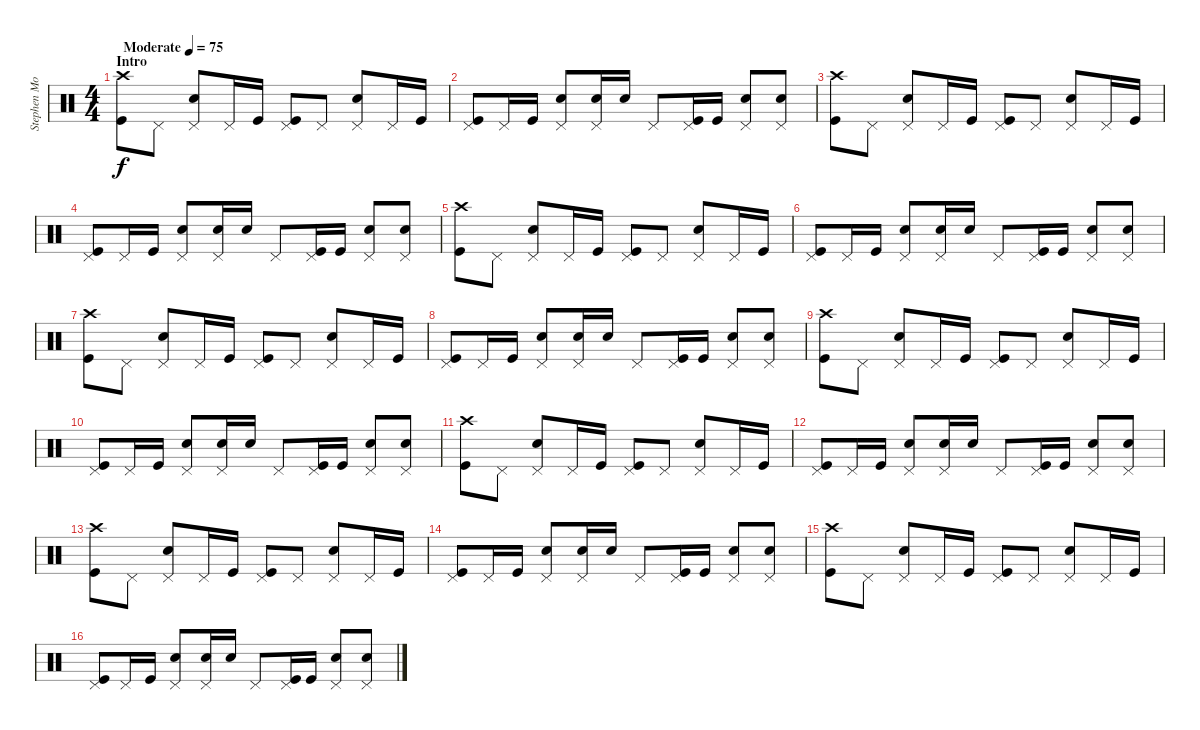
\track ("Stephen Morris (Drums)" "Stephen Mo") {instrument percussion}
\staff {score}
\articulation defaults
\ts (4 4)
\section ("" "Intro")
\tempo (75 "Moderate")
\clef neutral
\ks c
("Crash high (hit)" "Kick (hit)").8{dy f} "Pedal Hi-Hat (hit)".8 ("Pedal Hi-Hat (hit)" "Electric Snare (hit)").8 "Pedal Hi-Hat (hit)".16 "Kick (hit)".16 ("Pedal Hi-Hat (hit)" "Kick (hit)").8 "Pedal Hi-Hat (hit)".8 ("Pedal Hi-Hat (hit)" "Electric Snare (hit)").8 "Pedal Hi-Hat (hit)".16 "Kick (hit)".16 |
("Pedal Hi-Hat (hit)" "Kick (hit)").8 "Pedal Hi-Hat (hit)".16 "Kick (hit)".16 ("Pedal Hi-Hat (hit)" "Electric Snare (hit)").8 ("Pedal Hi-Hat (hit)" "Electric Snare (hit)").16 "Electric Snare (hit)".16 "Pedal Hi-Hat (hit)".8 ("Pedal Hi-Hat (hit)" "Kick (hit)").16 "Kick (hit)".16 ("Pedal Hi-Hat (hit)" "Electric Snare (hit)").8 ("Pedal Hi-Hat (hit)" "Electric Snare (hit)").8 |
("Crash high (hit)" "Kick (hit)").8 "Pedal Hi-Hat (hit)".8 ("Pedal Hi-Hat (hit)" "Electric Snare (hit)").8 "Pedal Hi-Hat (hit)".16 "Kick (hit)".16 ("Pedal Hi-Hat (hit)" "Kick (hit)").8 "Pedal Hi-Hat (hit)".8 ("Pedal Hi-Hat (hit)" "Electric Snare (hit)").8 "Pedal Hi-Hat (hit)".16 "Kick (hit)".16 |
("Pedal Hi-Hat (hit)" "Kick (hit)").8 "Pedal Hi-Hat (hit)".16 "Kick (hit)".16 ("Pedal Hi-Hat (hit)" "Electric Snare (hit)").8 ("Pedal Hi-Hat (hit)" "Electric Snare (hit)").16 "Electric Snare (hit)".16 "Pedal Hi-Hat (hit)".8 ("Pedal Hi-Hat (hit)" "Kick (hit)").16 "Kick (hit)".16 ("Pedal Hi-Hat (hit)" "Electric Snare (hit)").8 ("Pedal Hi-Hat (hit)" "Electric Snare (hit)").8 |
("Crash high (hit)" "Kick (hit)").8 "Pedal Hi-Hat (hit)".8 ("Pedal Hi-Hat (hit)" "Electric Snare (hit)").8 "Pedal Hi-Hat (hit)".16 "Kick (hit)".16 ("Pedal Hi-Hat (hit)" "Kick (hit)").8 "Pedal Hi-Hat (hit)".8 ("Pedal Hi-Hat (hit)" "Electric Snare (hit)").8 "Pedal Hi-Hat (hit)".16 "Kick (hit)".16 |
("Pedal Hi-Hat (hit)" "Kick (hit)").8 "Pedal Hi-Hat (hit)".16 "Kick (hit)".16 ("Pedal Hi-Hat (hit)" "Electric Snare (hit)").8 ("Pedal Hi-Hat (hit)" "Electric Snare (hit)").16 "Electric Snare (hit)".16 "Pedal Hi-Hat (hit)".8 ("Pedal Hi-Hat (hit)" "Kick (hit)").16 "Kick (hit)".16 ("Pedal Hi-Hat (hit)" "Electric Snare (hit)").8 ("Pedal Hi-Hat (hit)" "Electric Snare (hit)").8 |
("Crash high (hit)" "Kick (hit)").8 "Pedal Hi-Hat (hit)".8 ("Pedal Hi-Hat (hit)" "Electric Snare (hit)").8 "Pedal Hi-Hat (hit)".16 "Kick (hit)".16 ("Pedal Hi-Hat (hit)" "Kick (hit)").8 "Pedal Hi-Hat (hit)".8 ("Pedal Hi-Hat (hit)" "Electric Snare (hit)").8 "Pedal Hi-Hat (hit)".16 "Kick (hit)".16 |
("Pedal Hi-Hat (hit)" "Kick (hit)").8 "Pedal Hi-Hat (hit)".16 "Kick (hit)".16 ("Pedal Hi-Hat (hit)" "Electric Snare (hit)").8 ("Pedal Hi-Hat (hit)" "Electric Snare (hit)").16 "Electric Snare (hit)".16 "Pedal Hi-Hat (hit)".8 ("Pedal Hi-Hat (hit)" "Kick (hit)").16 "Kick (hit)".16 ("Pedal Hi-Hat (hit)" "Electric Snare (hit)").8 ("Pedal Hi-Hat (hit)" "Electric Snare (hit)").8 |
("Crash high (hit)" "Kick (hit)").8 "Pedal Hi-Hat (hit)".8 ("Pedal Hi-Hat (hit)" "Electric Snare (hit)").8 "Pedal Hi-Hat (hit)".16 "Kick (hit)".16 ("Pedal Hi-Hat (hit)" "Kick (hit)").8 "Pedal Hi-Hat (hit)".8 ("Pedal Hi-Hat (hit)" "Electric Snare (hit)").8 "Pedal Hi-Hat (hit)".16 "Kick (hit)".16 |
("Pedal Hi-Hat (hit)" "Kick (hit)").8 "Pedal Hi-Hat (hit)".16 "Kick (hit)".16 ("Pedal Hi-Hat (hit)" "Electric Snare (hit)").8 ("Pedal Hi-Hat (hit)" "Electric Snare (hit)").16 "Electric Snare (hit)".16 "Pedal Hi-Hat (hit)".8 ("Pedal Hi-Hat (hit)" "Kick (hit)").16 "Kick (hit)".16 ("Pedal Hi-Hat (hit)" "Electric Snare (hit)").8 ("Pedal Hi-Hat (hit)" "Electric Snare (hit)").8 |
("Crash high (hit)" "Kick (hit)").8 "Pedal Hi-Hat (hit)".8 ("Pedal Hi-Hat (hit)" "Electric Snare (hit)").8 "Pedal Hi-Hat (hit)".16 "Kick (hit)".16 ("Pedal Hi-Hat (hit)" "Kick (hit)").8 "Pedal Hi-Hat (hit)".8 ("Pedal Hi-Hat (hit)" "Electric Snare (hit)").8 "Pedal Hi-Hat (hit)".16 "Kick (hit)".16 |
("Pedal Hi-Hat (hit)" "Kick (hit)").8 "Pedal Hi-Hat (hit)".16 "Kick (hit)".16 ("Pedal Hi-Hat (hit)" "Electric Snare (hit)").8 ("Pedal Hi-Hat (hit)" "Electric Snare (hit)").16 "Electric Snare (hit)".16 "Pedal Hi-Hat (hit)".8 ("Pedal Hi-Hat (hit)" "Kick (hit)").16 "Kick (hit)".16 ("Pedal Hi-Hat (hit)" "Electric Snare (hit)").8 ("Pedal Hi-Hat (hit)" "Electric Snare (hit)").8 |
("Crash high (hit)" "Kick (hit)").8 "Pedal Hi-Hat (hit)".8 ("Pedal Hi-Hat (hit)" "Electric Snare (hit)").8 "Pedal Hi-Hat (hit)".16 "Kick (hit)".16 ("Pedal Hi-Hat (hit)" "Kick (hit)").8 "Pedal Hi-Hat (hit)".8 ("Pedal Hi-Hat (hit)" "Electric Snare (hit)").8 "Pedal Hi-Hat (hit)".16 "Kick (hit)".16 |
("Pedal Hi-Hat (hit)" "Kick (hit)").8 "Pedal Hi-Hat (hit)".16 "Kick (hit)".16 ("Pedal Hi-Hat (hit)" "Electric Snare (hit)").8 ("Pedal Hi-Hat (hit)" "Electric Snare (hit)").16 "Electric Snare (hit)".16 "Pedal Hi-Hat (hit)".8 ("Pedal Hi-Hat (hit)" "Kick (hit)").16 "Kick (hit)".16 ("Pedal Hi-Hat (hit)" "Electric Snare (hit)").8 ("Pedal Hi-Hat (hit)" "Electric Snare (hit)").8 |
("Crash high (hit)" "Kick (hit)").8 "Pedal Hi-Hat (hit)".8 ("Pedal Hi-Hat (hit)" "Electric Snare (hit)").8 "Pedal Hi-Hat (hit)".16 "Kick (hit)".16 ("Pedal Hi-Hat (hit)" "Kick (hit)").8 "Pedal Hi-Hat (hit)".8 ("Pedal Hi-Hat (hit)" "Electric Snare (hit)").8 "Pedal Hi-Hat (hit)".16 "Kick (hit)".16 |
("Pedal Hi-Hat (hit)" "Kick (hit)").8 "Pedal Hi-Hat (hit)".16 "Kick (hit)".16 ("Pedal Hi-Hat (hit)" "Electric Snare (hit)").8 ("Pedal Hi-Hat (hit)" "Electric Snare (hit)").16 "Electric Snare (hit)".16 "Pedal Hi-Hat (hit)".8 ("Pedal Hi-Hat (hit)" "Kick (hit)").16 "Kick (hit)".16 ("Pedal Hi-Hat (hit)" "Electric Snare (hit)").8 ("Pedal Hi-Hat (hit)" "Electric Snare (hit)").8
